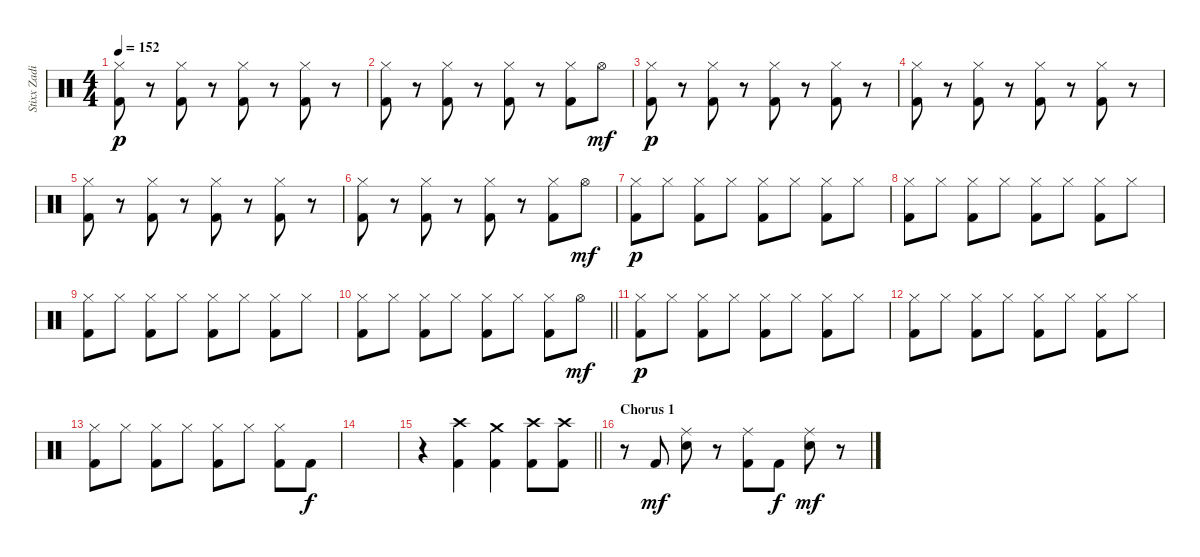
\track ("Stixx Zadinia" "Stixx Zadi") {instrument percussion}
\staff {score}
\articulation defaults
\ts (4 4)
\tempo 152
\clef neutral
\ks c
("Hi-Hat (closed)" "Kick (hit) 2").8{dy p} r.8 ("Hi-Hat (closed)" "Kick (hit) 2").8 r.8 ("Hi-Hat (closed)" "Kick (hit) 2").8 r.8 ("Hi-Hat (closed)" "Kick (hit) 2").8 r.8 |
("Hi-Hat (closed)" "Kick (hit) 2").8 r.8 ("Hi-Hat (closed)" "Kick (hit) 2").8 r.8 ("Hi-Hat (closed)" "Kick (hit) 2").8 r.8 ("Hi-Hat (closed)" "Kick (hit) 2").8 "Hi-Hat (open)".8{dy mf} |
("Hi-Hat (closed)" "Kick (hit) 2").8{dy p} r.8 ("Hi-Hat (closed)" "Kick (hit) 2").8 r.8 ("Hi-Hat (closed)" "Kick (hit) 2").8 r.8 ("Hi-Hat (closed)" "Kick (hit) 2").8 r.8 |
("Hi-Hat (closed)" "Kick (hit) 2").8 r.8 ("Hi-Hat (closed)" "Kick (hit) 2").8 r.8 ("Hi-Hat (closed)" "Kick (hit) 2").8 r.8 ("Hi-Hat (closed)" "Kick (hit) 2").8 r.8 |
("Hi-Hat (closed)" "Kick (hit) 2").8 r.8 ("Hi-Hat (closed)" "Kick (hit) 2").8 r.8 ("Hi-Hat (closed)" "Kick (hit) 2").8 r.8 ("Hi-Hat (closed)" "Kick (hit) 2").8 r.8 |
("Hi-Hat (closed)" "Kick (hit) 2").8 r.8 ("Hi-Hat (closed)" "Kick (hit) 2").8 r.8 ("Hi-Hat (closed)" "Kick (hit) 2").8 r.8 ("Hi-Hat (closed)" "Kick (hit) 2").8 "Hi-Hat (open)".8{dy mf} |
("Hi-Hat (closed)" "Kick (hit) 2").8{dy p} "Hi-Hat (closed)".8 ("Hi-Hat (closed)" "Kick (hit) 2").8 "Hi-Hat (closed)".8 ("Hi-Hat (closed)" "Kick (hit) 2").8 "Hi-Hat (closed)".8 ("Hi-Hat (closed)" "Kick (hit) 2").8 "Hi-Hat (closed)".8 |
("Hi-Hat (closed)" "Kick (hit) 2").8 "Hi-Hat (closed)".8 ("Hi-Hat (closed)" "Kick (hit) 2").8 "Hi-Hat (closed)".8 ("Hi-Hat (closed)" "Kick (hit) 2").8 "Hi-Hat (closed)".8 ("Hi-Hat (closed)" "Kick (hit) 2").8 "Hi-Hat (closed)".8 |
("Hi-Hat (closed)" "Kick (hit) 2").8 "Hi-Hat (closed)".8 ("Hi-Hat (closed)" "Kick (hit) 2").8 "Hi-Hat (closed)".8 ("Hi-Hat (closed)" "Kick (hit) 2").8 "Hi-Hat (closed)".8 ("Hi-Hat (closed)" "Kick (hit) 2").8 "Hi-Hat (closed)".8 |
\barLineRight lightlight
("Hi-Hat (closed)" "Kick (hit) 2").8 "Hi-Hat (closed)".8 ("Hi-Hat (closed)" "Kick (hit) 2").8 "Hi-Hat (closed)".8 ("Hi-Hat (closed)" "Kick (hit) 2").8 "Hi-Hat (closed)".8 ("Hi-Hat (closed)" "Kick (hit) 2").8 "Hi-Hat (open)".8{dy mf} |
("Hi-Hat (closed)" "Kick (hit) 2").8{dy p} "Hi-Hat (closed)".8 ("Hi-Hat (closed)" "Kick (hit) 2").8 "Hi-Hat (closed)".8 ("Hi-Hat (closed)" "Kick (hit) 2").8 "Hi-Hat (closed)".8 ("Hi-Hat (closed)" "Kick (hit) 2").8 "Hi-Hat (closed)".8 |
("Hi-Hat (closed)" "Kick (hit) 2").8 "Hi-Hat (closed)".8 ("Hi-Hat (closed)" "Kick (hit) 2").8 "Hi-Hat (closed)".8 ("Hi-Hat (closed)" "Kick (hit) 2").8 "Hi-Hat (closed)".8 ("Hi-Hat (closed)" "Kick (hit) 2").8 "Hi-Hat (closed)".8 |
("Hi-Hat (closed)" "Kick (hit) 2").8 "Hi-Hat (closed)".8 ("Hi-Hat (closed)" "Kick (hit) 2").8 "Hi-Hat (closed)".8 ("Hi-Hat (closed)" "Kick (hit) 2").8 "Hi-Hat (closed)".8 ("Hi-Hat (closed)" "Kick (hit) 2").8 "Kick (hit) 2".8{dy f} |
|
\barLineRight lightlight
r.4 ("Crash high (hit)" "Kick (hit) 2").4 ("Crash medium (hit)" "Kick (hit) 2").4 ("Crash high (hit)" "Kick (hit) 2").8 ("Crash high (hit)" "Kick (hit) 2").8 |
\section ("" "Chorus 1")
r.8 "Kick (hit) 2".8{dy mf} ("Ride (middle)" "Snare (hit) 2").8 r.8 ("Ride (middle)" "Kick (hit) 2").8 "Kick (hit) 2".8{dy f} ("Ride (middle)" "Snare (hit) 2").8{dy mf} r.8
